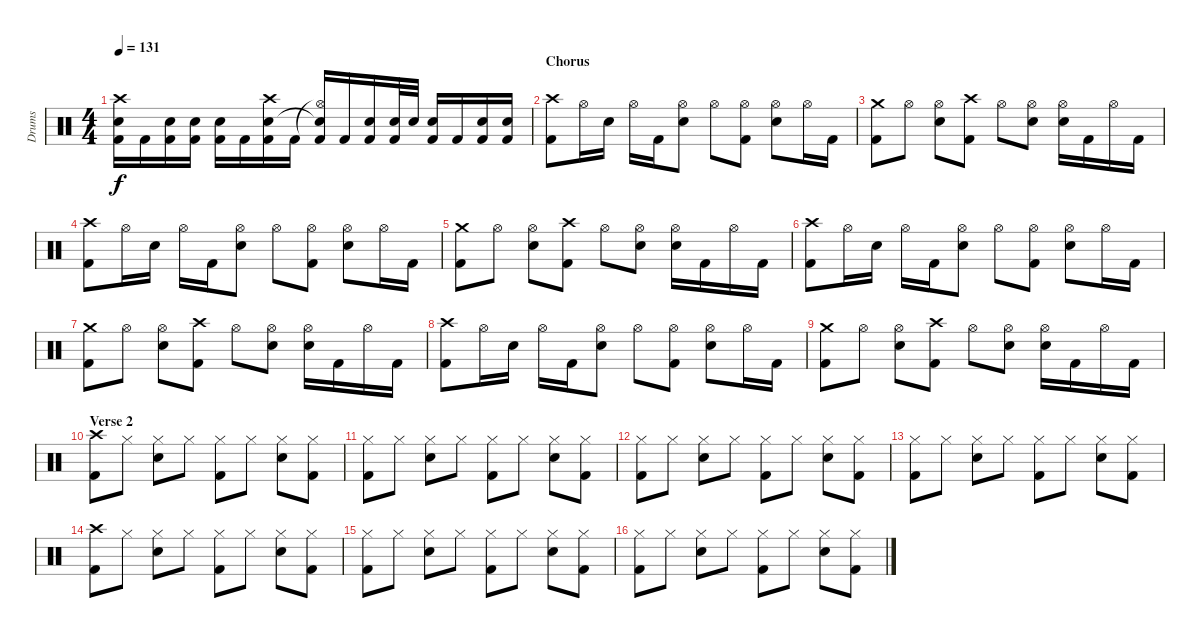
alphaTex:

\track ("Drums" "Drums") {instrument percussion}
\staff {score}
\articulation defaults
\ts (4 4)
\section ("" "")
\tempo 131
\clef neutral
\ks c
("Crash high (hit)" "Electric Snare (hit)" "Kick (hit) 2").16{dy f} "Kick (hit) 2".16 ("Electric Snare (hit)" "Kick (hit) 2").16 ("Electric Snare (hit)" "Kick (hit) 2").16 ("Electric Snare (hit)" "Kick (hit) 2").16 "Kick (hit) 2".16 ("Crash high (hit)" "Electric Snare (hit)" "Kick (hit) 2").16 "Kick (hit) 2".16 ("Hi-Hat (open)"{t} "Snare (hit)"{t} "Kick (hit) 2").16 "Kick (hit) 2".16 ("Electric Snare (hit)" "Kick (hit) 2").16 ("Electric Snare (hit)" "Kick (hit) 2").32 "Electric Snare (hit)".32 ("Electric Snare (hit)" "Kick (hit) 2").16 "Kick (hit) 2".16 ("Electric Snare (hit)" "Kick (hit) 2").16 ("Electric Snare (hit)" "Kick (hit) 2").16 |
\section ("" "Chorus")
("Crash high (hit)" "Kick (hit) 2").8 "Hi-Hat (open)".16 "Electric Snare (hit)".16 "Hi-Hat (open)".16 "Kick (hit) 2".16 ("Hi-Hat (open)" "Electric Snare (hit)").8 "Hi-Hat (open)".8 ("Hi-Hat (open)" "Kick (hit) 2").8 ("Hi-Hat (open)" "Electric Snare (hit)").8 "Hi-Hat (open)".16 "Kick (hit) 2".16 |
("Crash medium (hit)" "Kick (hit) 2").8 "Hi-Hat (open)".8 ("Hi-Hat (open)" "Electric Snare (hit)").8 ("Crash high (hit)" "Kick (hit) 2").8 "Hi-Hat (open)".8 ("Hi-Hat (open)" "Electric Snare (hit)").8 ("Hi-Hat (open)" "Electric Snare (hit)").16 "Kick (hit) 2".16 "Hi-Hat (open)".16 "Kick (hit) 2".16 |
("Crash high (hit)" "Kick (hit) 2").8 "Hi-Hat (open)".16 "Electric Snare (hit)".16 "Hi-Hat (open)".16 "Kick (hit) 2".16 ("Hi-Hat (open)" "Electric Snare (hit)").8 "Hi-Hat (open)".8 ("Hi-Hat (open)" "Kick (hit) 2").8 ("Hi-Hat (open)" "Electric Snare (hit)").8 "Hi-Hat (open)".16 "Kick (hit) 2".16 |
("Crash medium (hit)" "Kick (hit) 2").8 "Hi-Hat (open)".8 ("Hi-Hat (open)" "Electric Snare (hit)").8 ("Crash high (hit)" "Kick (hit) 2").8 "Hi-Hat (open)".8 ("Hi-Hat (open)" "Electric Snare (hit)").8 ("Hi-Hat (open)" "Electric Snare (hit)").16 "Kick (hit) 2".16 "Hi-Hat (open)".16 "Kick (hit) 2".16 |
("Crash high (hit)" "Kick (hit) 2").8 "Hi-Hat (open)".16 "Electric Snare (hit)".16 "Hi-Hat (open)".16 "Kick (hit) 2".16 ("Hi-Hat (open)" "Electric Snare (hit)").8 "Hi-Hat (open)".8 ("Hi-Hat (open)" "Kick (hit) 2").8 ("Hi-Hat (open)" "Electric Snare (hit)").8 "Hi-Hat (open)".16 "Kick (hit) 2".16 |
("Crash medium (hit)" "Kick (hit) 2").8 "Hi-Hat (open)".8 ("Hi-Hat (open)" "Electric Snare (hit)").8 ("Crash high (hit)" "Kick (hit) 2").8 "Hi-Hat (open)".8 ("Hi-Hat (open)" "Electric Snare (hit)").8 ("Hi-Hat (open)" "Electric Snare (hit)").16 "Kick (hit) 2".16 "Hi-Hat (open)".16 "Kick (hit) 2".16 |
("Crash high (hit)" "Kick (hit) 2").8 "Hi-Hat (open)".16 "Electric Snare (hit)".16 "Hi-Hat (open)".16 "Kick (hit) 2".16 ("Hi-Hat (open)" "Electric Snare (hit)").8 "Hi-Hat (open)".8 ("Hi-Hat (open)" "Kick (hit) 2").8 ("Hi-Hat (open)" "Electric Snare (hit)").8 "Hi-Hat (open)".16 "Kick (hit) 2".16 |
("Crash medium (hit)" "Kick (hit) 2").8 "Hi-Hat (open)".8 ("Hi-Hat (open)" "Electric Snare (hit)").8 ("Crash high (hit)" "Kick (hit) 2").8 "Hi-Hat (open)".8 ("Hi-Hat (open)" "Electric Snare (hit)").8 ("Hi-Hat (open)" "Electric Snare (hit)").16 "Kick (hit) 2".16 "Hi-Hat (open)".16 "Kick (hit) 2".16 |
\section ("" "Verse 2")
("Crash high (hit)" "Kick (hit) 2").8 "Hi-Hat (closed)".8 ("Hi-Hat (closed)" "Electric Snare (hit)").8 "Hi-Hat (closed)".8 ("Hi-Hat (closed)" "Kick (hit) 2").8 "Hi-Hat (closed)".8 ("Hi-Hat (closed)" "Electric Snare (hit)").8 ("Hi-Hat (closed)" "Kick (hit) 2").8 |
("Hi-Hat (closed)" "Kick (hit) 2").8 "Hi-Hat (closed)".8 ("Hi-Hat (closed)" "Electric Snare (hit)").8 "Hi-Hat (closed)".8 ("Hi-Hat (closed)" "Kick (hit) 2").8 "Hi-Hat (closed)".8 ("Hi-Hat (closed)" "Electric Snare (hit)").8 ("Hi-Hat (closed)" "Kick (hit) 2").8 |
("Hi-Hat (closed)" "Kick (hit) 2").8 "Hi-Hat (closed)".8 ("Hi-Hat (closed)" "Electric Snare (hit)").8 "Hi-Hat (closed)".8 ("Hi-Hat (closed)" "Kick (hit) 2").8 "Hi-Hat (closed)".8 ("Hi-Hat (closed)" "Electric Snare (hit)").8 ("Hi-Hat (closed)" "Kick (hit) 2").8 |
("Hi-Hat (closed)" "Kick (hit) 2").8 "Hi-Hat (closed)".8 ("Hi-Hat (closed)" "Electric Snare (hit)").8 "Hi-Hat (closed)".8 ("Hi-Hat (closed)" "Kick (hit) 2").8 "Hi-Hat (closed)".8 ("Hi-Hat (closed)" "Electric Snare (hit)").8 ("Hi-Hat (closed)" "Kick (hit) 2").8 |
("Crash high (hit)" "Kick (hit) 2").8 "Hi-Hat (closed)".8 ("Hi-Hat (closed)" "Electric Snare (hit)").8 "Hi-Hat (closed)".8 ("Hi-Hat (closed)" "Kick (hit) 2").8 "Hi-Hat (closed)".8 ("Hi-Hat (closed)" "Electric Snare (hit)").8 ("Hi-Hat (closed)" "Kick (hit) 2").8 |
("Hi-Hat (closed)" "Kick (hit) 2").8 "Hi-Hat (closed)".8 ("Hi-Hat (closed)" "Electric Snare (hit)").8 "Hi-Hat (closed)".8 ("Hi-Hat (closed)" "Kick (hit) 2").8 "Hi-Hat (closed)".8 ("Hi-Hat (closed)" "Electric Snare (hit)").8 ("Hi-Hat (closed)" "Kick (hit) 2").8 |
("Hi-Hat (closed)" "Kick (hit) 2").8 "Hi-Hat (closed)".8 ("Hi-Hat (closed)" "Electric Snare (hit)").8 "Hi-Hat (closed)".8 ("Hi-Hat (closed)" "Kick (hit) 2").8 "Hi-Hat (closed)".8 ("Hi-Hat (closed)" "Electric Snare (hit)").8 ("Hi-Hat (closed)" "Kick (hit) 2").8
